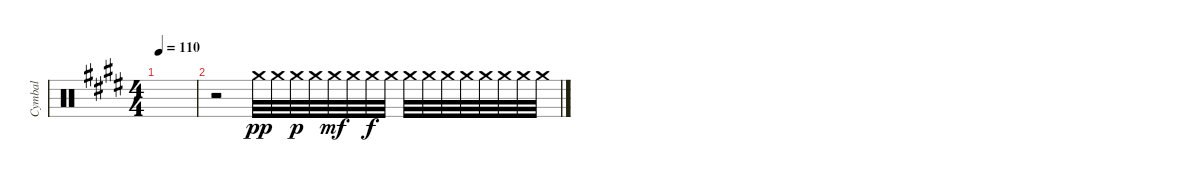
\track ("Cymbal" "Cymbal") {instrument percussion}
\staff {score}
\articulation defaults
\ts (4 4)
\tempo 110
\clef neutral
\ks e
|
r.2 "Crash medium (hit)".32{dy pp} "Crash medium (hit)".32 "Crash medium (hit)".32{dy p} "Crash medium (hit)".32 "Crash medium (hit)".32{dy mf} "Crash medium (hit)".32 "Crash medium (hit)".32{dy f} "Crash medium (hit)".32 "Crash medium (hit)".32 "Crash medium (hit)".32 "Crash medium (hit)".32 "Crash medium (hit)".32 "Crash medium (hit)".32 "Crash medium (hit)".32 "Crash medium (hit)".32 "Crash medium (hit)".32
